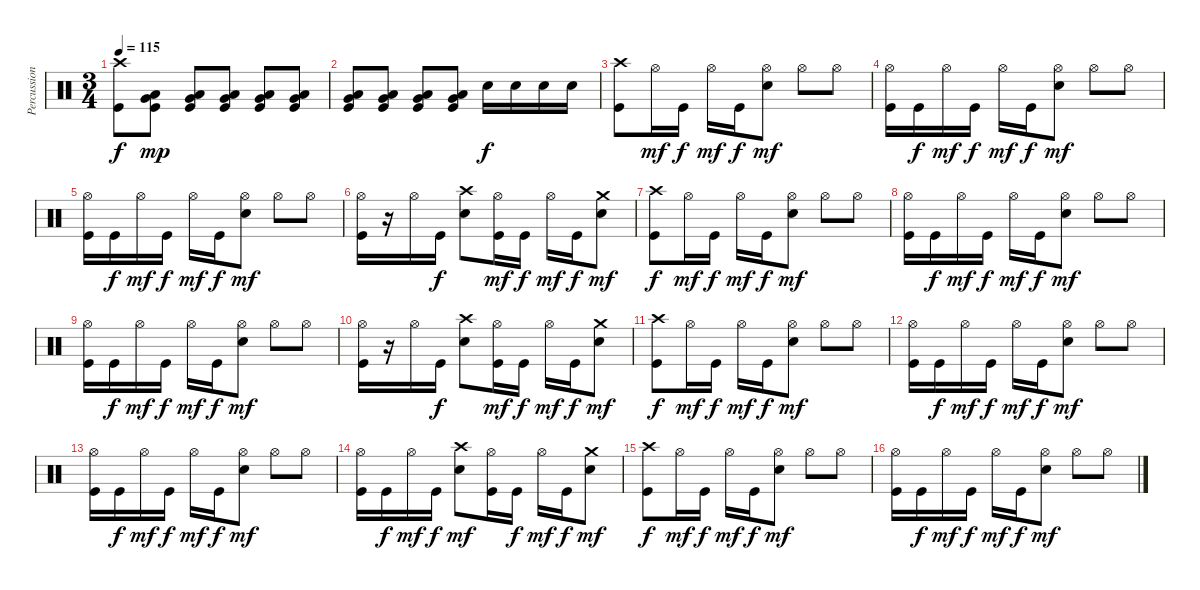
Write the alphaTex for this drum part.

\track ("Percussions" "Percussion") {instrument percussion}
\staff {score}
\articulation defaults
\ts (3 4)
\tempo 115
\clef neutral
\ks c
("Kick (hit)" "Crash high (hit)").8{dy f} ("Kick (hit)" "Very Low Tom (hit)" "Low Floor Tom (hit)").8{dy mp} ("Kick (hit)" "Very Low Tom (hit)" "Low Floor Tom (hit)").8 ("Kick (hit)" "Very Low Tom (hit)" "Low Floor Tom (hit)").8 ("Kick (hit)" "Very Low Tom (hit)" "Low Floor Tom (hit)").8 ("Kick (hit)" "Very Low Tom (hit)" "Low Floor Tom (hit)").8 |
("Kick (hit)" "Very Low Tom (hit)" "Low Floor Tom (hit)").8 ("Kick (hit)" "Very Low Tom (hit)" "Low Floor Tom (hit)").8 ("Kick (hit)" "Very Low Tom (hit)" "Low Floor Tom (hit)").8 ("Kick (hit)" "Very Low Tom (hit)" "Low Floor Tom (hit)").8 "Electric Snare (hit)".16{dy f} "Electric Snare (hit)".16 "Electric Snare (hit)".16 "Electric Snare (hit)".16 |
("Kick (hit)" "Crash high (hit)").8 "Hi-Hat (open)".16{dy mf} "Kick (hit)".16{dy f} "Hi-Hat (open)".16{dy mf} "Kick (hit)".16{dy f} ("Electric Snare (hit)" "Hi-Hat (open)").8{dy mf} "Hi-Hat (open)".8 "Hi-Hat (open)".8 |
("Kick (hit)" "Hi-Hat (open)").16 "Kick (hit)".16{dy f} "Hi-Hat (open)".16{dy mf} "Kick (hit)".16{dy f} "Hi-Hat (open)".16{dy mf} "Kick (hit)".16{dy f} ("Electric Snare (hit)" "Hi-Hat (open)").8{dy mf} "Hi-Hat (open)".8 "Hi-Hat (open)".8 |
("Kick (hit)" "Hi-Hat (open)").16 "Kick (hit)".16{dy f} "Hi-Hat (open)".16{dy mf} "Kick (hit)".16{dy f} "Hi-Hat (open)".16{dy mf} "Kick (hit)".16{dy f} ("Electric Snare (hit)" "Hi-Hat (open)").8{dy mf} "Hi-Hat (open)".8 "Hi-Hat (open)".8 |
("Kick (hit)" "Hi-Hat (open)").16 r.16 "Hi-Hat (open)".16 "Kick (hit)".16{dy f} ("Electric Snare (hit)" "Crash high (hit)").8 ("Kick (hit)" "Hi-Hat (open)").16{dy mf} "Kick (hit)".16{dy f} "Hi-Hat (open)".16{dy mf} "Kick (hit)".16{dy f} ("Electric Snare (hit)" "Crash medium (hit)").8{dy mf} |
("Kick (hit)" "Crash high (hit)").8{dy f} "Hi-Hat (open)".16{dy mf} "Kick (hit)".16{dy f} "Hi-Hat (open)".16{dy mf} "Kick (hit)".16{dy f} ("Electric Snare (hit)" "Hi-Hat (open)").8{dy mf} "Hi-Hat (open)".8 "Hi-Hat (open)".8 |
("Kick (hit)" "Hi-Hat (open)").16 "Kick (hit)".16{dy f} "Hi-Hat (open)".16{dy mf} "Kick (hit)".16{dy f} "Hi-Hat (open)".16{dy mf} "Kick (hit)".16{dy f} ("Electric Snare (hit)" "Hi-Hat (open)").8{dy mf} "Hi-Hat (open)".8 "Hi-Hat (open)".8 |
("Kick (hit)" "Hi-Hat (open)").16 "Kick (hit)".16{dy f} "Hi-Hat (open)".16{dy mf} "Kick (hit)".16{dy f} "Hi-Hat (open)".16{dy mf} "Kick (hit)".16{dy f} ("Electric Snare (hit)" "Hi-Hat (open)").8{dy mf} "Hi-Hat (open)".8 "Hi-Hat (open)".8 |
("Kick (hit)" "Hi-Hat (open)").16 r.16 "Hi-Hat (open)".16 "Kick (hit)".16{dy f} ("Electric Snare (hit)" "Crash high (hit)").8 ("Kick (hit)" "Hi-Hat (open)").16{dy mf} "Kick (hit)".16{dy f} "Hi-Hat (open)".16{dy mf} "Kick (hit)".16{dy f} ("Electric Snare (hit)" "Crash medium (hit)").8{dy mf} |
("Kick (hit)" "Crash high (hit)").8{dy f} "Hi-Hat (open)".16{dy mf} "Kick (hit)".16{dy f} "Hi-Hat (open)".16{dy mf} "Kick (hit)".16{dy f} ("Electric Snare (hit)" "Hi-Hat (open)").8{dy mf} "Hi-Hat (open)".8 "Hi-Hat (open)".8 |
("Kick (hit)" "Hi-Hat (open)").16 "Kick (hit)".16{dy f} "Hi-Hat (open)".16{dy mf} "Kick (hit)".16{dy f} "Hi-Hat (open)".16{dy mf} "Kick (hit)".16{dy f} ("Electric Snare (hit)" "Hi-Hat (open)").8{dy mf} "Hi-Hat (open)".8 "Hi-Hat (open)".8 |
("Kick (hit)" "Hi-Hat (open)").16 "Kick (hit)".16{dy f} "Hi-Hat (open)".16{dy mf} "Kick (hit)".16{dy f} "Hi-Hat (open)".16{dy mf} "Kick (hit)".16{dy f} ("Electric Snare (hit)" "Hi-Hat (open)").8{dy mf} "Hi-Hat (open)".8 "Hi-Hat (open)".8 |
("Kick (hit)" "Hi-Hat (open)").16 "Kick (hit)".16{dy f} "Hi-Hat (open)".16{dy mf} "Kick (hit)".16{dy f} ("Electric Snare (hit)" "Crash high (hit)").8{dy mf} ("Kick (hit)" "Hi-Hat (open)").16 "Kick (hit)".16{dy f} "Hi-Hat (open)".16{dy mf} "Kick (hit)".16{dy f} ("Electric Snare (hit)" "Crash medium (hit)").8{dy mf} |
("Kick (hit)" "Crash high (hit)").8{dy f} "Hi-Hat (open)".16{dy mf} "Kick (hit)".16{dy f} "Hi-Hat (open)".16{dy mf} "Kick (hit)".16{dy f} ("Electric Snare (hit)" "Hi-Hat (open)").8{dy mf} "Hi-Hat (open)".8 "Hi-Hat (open)".8 |
("Kick (hit)" "Hi-Hat (open)").16 "Kick (hit)".16{dy f} "Hi-Hat (open)".16{dy mf} "Kick (hit)".16{dy f} "Hi-Hat (open)".16{dy mf} "Kick (hit)".16{dy f} ("Electric Snare (hit)" "Hi-Hat (open)").8{dy mf} "Hi-Hat (open)".8 "Hi-Hat (open)".8
